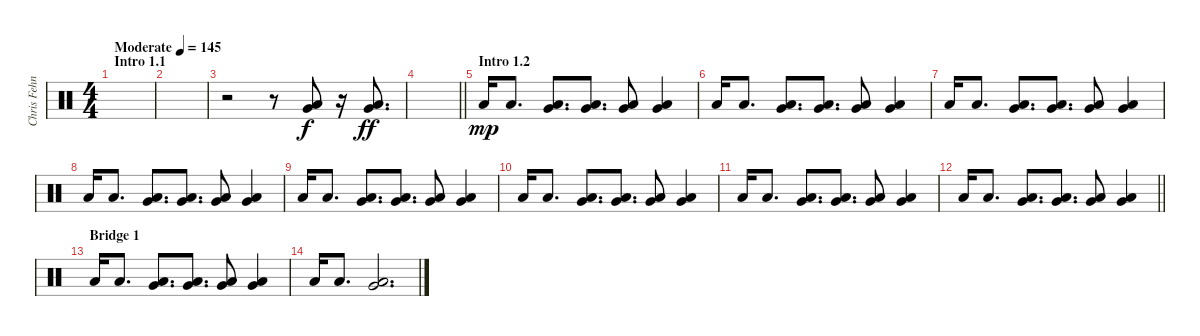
\track ("Chris Fehn" "Chris Fehn") {instrument percussion}
\staff {score}
\articulation defaults
\ts (4 4)
\section ("" "Intro 1.1")
\tempo (145 "Moderate")
\clef neutral
\ks c
|
|
r.2 r.8 ("Very Low Tom (hit)" "Low Floor Tom (hit)").8 r.16 ("Very Low Tom (hit)" "Low Floor Tom (hit)").8{d dy ff} |
\barLineRight lightlight
|
\section ("" "Intro 1.2")
"Low Floor Tom (hit)".16{dy mp} "Low Floor Tom (hit)".8{d} ("Very Low Tom (hit)" "Low Floor Tom (hit)").8{d} ("Very Low Tom (hit)" "Low Floor Tom (hit)").8{d} ("Very Low Tom (hit)" "Low Floor Tom (hit)").8 ("Very Low Tom (hit)" "Low Floor Tom (hit)").4 |
"Low Floor Tom (hit)".16 "Low Floor Tom (hit)".8{d} ("Very Low Tom (hit)" "Low Floor Tom (hit)").8{d} ("Very Low Tom (hit)" "Low Floor Tom (hit)").8{d} ("Very Low Tom (hit)" "Low Floor Tom (hit)").8 ("Very Low Tom (hit)" "Low Floor Tom (hit)").4 |
"Low Floor Tom (hit)".16 "Low Floor Tom (hit)".8{d} ("Very Low Tom (hit)" "Low Floor Tom (hit)").8{d} ("Very Low Tom (hit)" "Low Floor Tom (hit)").8{d} ("Very Low Tom (hit)" "Low Floor Tom (hit)").8 ("Very Low Tom (hit)" "Low Floor Tom (hit)").4 |
"Low Floor Tom (hit)".16 "Low Floor Tom (hit)".8{d} ("Very Low Tom (hit)" "Low Floor Tom (hit)").8{d} ("Very Low Tom (hit)" "Low Floor Tom (hit)").8{d} ("Very Low Tom (hit)" "Low Floor Tom (hit)").8 ("Very Low Tom (hit)" "Low Floor Tom (hit)").4 |
"Low Floor Tom (hit)".16 "Low Floor Tom (hit)".8{d} ("Very Low Tom (hit)" "Low Floor Tom (hit)").8{d} ("Very Low Tom (hit)" "Low Floor Tom (hit)").8{d} ("Very Low Tom (hit)" "Low Floor Tom (hit)").8 ("Very Low Tom (hit)" "Low Floor Tom (hit)").4 |
"Low Floor Tom (hit)".16 "Low Floor Tom (hit)".8{d} ("Very Low Tom (hit)" "Low Floor Tom (hit)").8{d} ("Very Low Tom (hit)" "Low Floor Tom (hit)").8{d} ("Very Low Tom (hit)" "Low Floor Tom (hit)").8 ("Very Low Tom (hit)" "Low Floor Tom (hit)").4 |
"Low Floor Tom (hit)".16 "Low Floor Tom (hit)".8{d} ("Very Low Tom (hit)" "Low Floor Tom (hit)").8{d} ("Very Low Tom (hit)" "Low Floor Tom (hit)").8{d} ("Very Low Tom (hit)" "Low Floor Tom (hit)").8 ("Very Low Tom (hit)" "Low Floor Tom (hit)").4 |
\barLineRight lightlight "Low Floor Tom (hit)".16 "Low Floor Tom (hit)".8{d}
("Very Low Tom (hit)" "Low Floor Tom (hit)").8{d} ("Very Low Tom (hit)" "Low Floor Tom (hit)").8{d} ("Very Low Tom (hit)" "Low Floor Tom (hit)").8 ("Very Low Tom (hit)" "Low Floor Tom (hit)").4 |
\section ("" "Bridge 1")
"Low Floor Tom (hit)".16 "Low Floor Tom (hit)".8{d} ("Very Low Tom (hit)" "Low Floor Tom (hit)").8{d} ("Very Low Tom (hit)" "Low Floor Tom (hit)").8{d} ("Very Low Tom (hit)" "Low Floor Tom (hit)").8 ("Very Low Tom (hit)" "Low Floor Tom (hit)").4 |
"Low Floor Tom (hit)".16 "Low Floor Tom (hit)".8{d} ("Very Low Tom (hit)" "Low Floor Tom (hit)").2{d}
